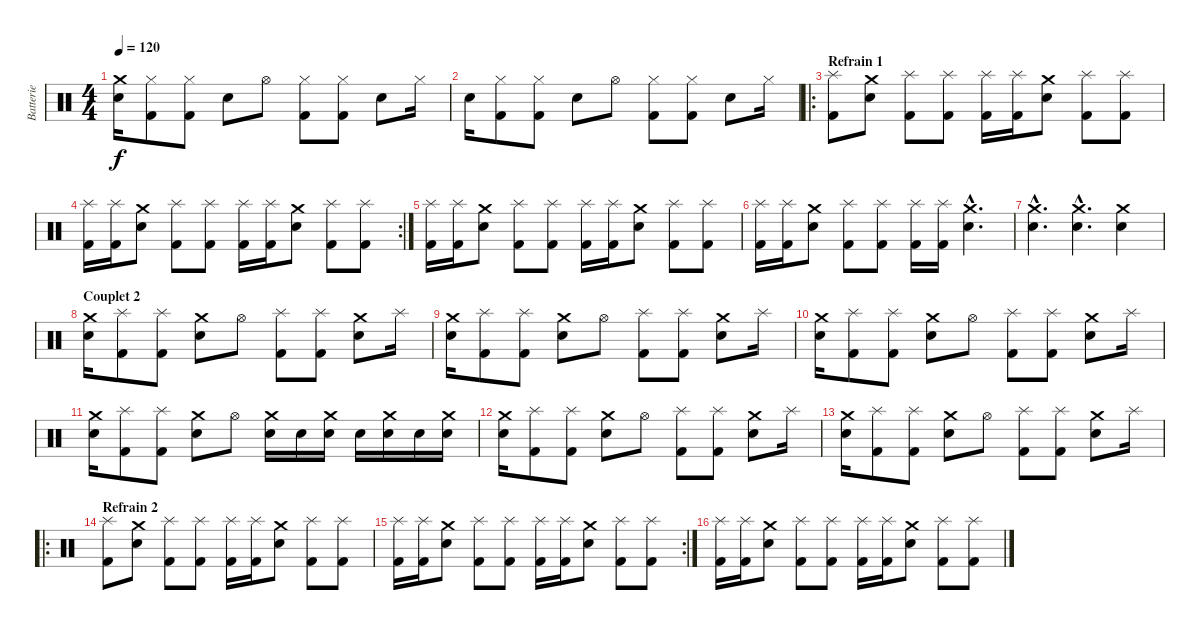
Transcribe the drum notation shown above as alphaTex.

\track ("Batterie" "Batterie") {instrument percussion}
\staff {score}
\articulation defaults
\ts (4 4)
\tempo 120
\clef neutral
\ks c
("Crash medium (hit)" "Snare (hit) 2").16{dy f} ("Hi-Hat (closed)" "Kick (hit) 2").8 ("Hi-Hat (closed)" "Kick (hit) 2").8 "Snare (hit) 2".8 "Hi-Hat (open)".8 ("Hi-Hat (closed)" "Kick (hit) 2").8 ("Hi-Hat (closed)" "Kick (hit) 2").8 "Snare (hit) 2".8 "Hi-Hat (closed)".16 |
"Snare (hit) 2".16 ("Hi-Hat (closed)" "Kick (hit) 2").8 ("Hi-Hat (closed)" "Kick (hit) 2").8 "Snare (hit) 2".8 "Hi-Hat (open)".8 ("Hi-Hat (closed)" "Kick (hit) 2").8 ("Hi-Hat (closed)" "Kick (hit) 2").8 "Snare (hit) 2".8 "Hi-Hat (closed)".16 |
\ro
\section ("" "Refrain 1")
("Splash (hit)" "Kick (hit) 2").8 ("Crash medium (hit)" "Snare (hit) 2").8 ("Splash (hit)" "Kick (hit) 2").8 ("Splash (hit)" "Kick (hit) 2").8 ("Splash (hit)" "Kick (hit) 2").16 ("Splash (hit)" "Kick (hit) 2").16 ("Crash medium (hit)" "Snare (hit) 2").8 ("Splash (hit)" "Kick (hit) 2").8 ("Splash (hit)" "Kick (hit) 2").8 |
\rc 2
("Splash (hit)" "Kick (hit) 2").16 ("Splash (hit)" "Kick (hit) 2").16 ("Crash medium (hit)" "Snare (hit) 2").8 ("Splash (hit)" "Kick (hit) 2").8 ("Splash (hit)" "Kick (hit) 2").8 ("Splash (hit)" "Kick (hit) 2").16 ("Splash (hit)" "Kick (hit) 2").16 ("Crash medium (hit)" "Snare (hit) 2").8 ("Splash (hit)" "Kick (hit) 2").8 ("Splash (hit)" "Kick (hit) 2").8 |
("Splash (hit)" "Kick (hit) 2").16 ("Splash (hit)" "Kick (hit) 2").16 ("Crash medium (hit)" "Snare (hit) 2").8 ("Splash (hit)" "Kick (hit) 2").8 ("Splash (hit)" "Kick (hit) 2").8 ("Splash (hit)" "Kick (hit) 2").16 ("Splash (hit)" "Kick (hit) 2").16 ("Crash medium (hit)" "Snare (hit) 2").8 ("Splash (hit)" "Kick (hit) 2").8 ("Splash (hit)" "Kick (hit) 2").8 |
("Splash (hit)" "Kick (hit) 2").16 ("Splash (hit)" "Kick (hit) 2").16 ("Crash medium (hit)" "Snare (hit) 2").8 ("Splash (hit)" "Kick (hit) 2").8 ("Splash (hit)" "Kick (hit) 2").8 ("Splash (hit)" "Kick (hit) 2").16 ("Splash (hit)" "Kick (hit) 2").16 ("Crash medium (hit)"{hac} "Snare (hit) 2"{hac}).4{d} |
("Crash medium (hit)"{hac} "Snare (hit) 2"{hac}).4{d} ("Crash medium (hit)"{hac} "Snare (hit) 2"{hac}).4{d} ("Crash medium (hit)" "Snare (hit) 2").4 |
\section ("" "Couplet 2")
("Crash medium (hit)" "Snare (hit) 2").16 ("Splash (hit)" "Kick (hit) 2").8 ("Splash (hit)" "Kick (hit) 2").8 ("Crash medium (hit)" "Snare (hit) 2").8 "Hi-Hat (open)".8 ("Splash (hit)" "Kick (hit) 2").8 ("Splash (hit)" "Kick (hit) 2").8 ("Crash medium (hit)" "Snare (hit) 2").8 "Splash (hit)".16 |
("Crash medium (hit)" "Snare (hit) 2").16 ("Splash (hit)" "Kick (hit) 2").8 ("Splash (hit)" "Kick (hit) 2").8 ("Crash medium (hit)" "Snare (hit) 2").8 "Hi-Hat (open)".8 ("Splash (hit)" "Kick (hit) 2").8 ("Splash (hit)" "Kick (hit) 2").8 ("Crash medium (hit)" "Snare (hit) 2").8 "Splash (hit)".16 |
("Crash medium (hit)" "Snare (hit) 2").16 ("Splash (hit)" "Kick (hit) 2").8 ("Splash (hit)" "Kick (hit) 2").8 ("Crash medium (hit)" "Snare (hit) 2").8 "Hi-Hat (open)".8 ("Splash (hit)" "Kick (hit) 2").8 ("Splash (hit)" "Kick (hit) 2").8 ("Crash medium (hit)" "Snare (hit) 2").8 "Splash (hit)".16 |
("Crash medium (hit)" "Snare (hit) 2").16 ("Splash (hit)" "Kick (hit) 2").8 ("Splash (hit)" "Kick (hit) 2").8 ("Crash medium (hit)" "Snare (hit) 2").8 "Hi-Hat (open)".8 ("Crash medium (hit)" "Snare (hit) 2").16 "Snare (hit) 2".16 ("Crash medium (hit)" "Snare (hit) 2").16 "Snare (hit) 2".16 ("Crash medium (hit)" "Snare (hit) 2").16 "Snare (hit) 2".16 ("Crash medium (hit)" "Snare (hit) 2").16 |
("Crash medium (hit)" "Snare (hit) 2").16 ("Splash (hit)" "Kick (hit) 2").8 ("Splash (hit)" "Kick (hit) 2").8 ("Crash medium (hit)" "Snare (hit) 2").8 "Hi-Hat (open)".8 ("Splash (hit)" "Kick (hit) 2").8 ("Splash (hit)" "Kick (hit) 2").8 ("Crash medium (hit)" "Snare (hit) 2").8 "Splash (hit)".16 |
("Crash medium (hit)" "Snare (hit) 2").16 ("Splash (hit)" "Kick (hit) 2").8 ("Splash (hit)" "Kick (hit) 2").8 ("Crash medium (hit)" "Snare (hit) 2").8 "Hi-Hat (open)".8 ("Splash (hit)" "Kick (hit) 2").8 ("Splash (hit)" "Kick (hit) 2").8 ("Crash medium (hit)" "Snare (hit) 2").8 "Splash (hit)".16 |
\ro
\section ("" "Refrain 2")
("Splash (hit)" "Kick (hit) 2").8 ("Crash medium (hit)" "Snare (hit) 2").8 ("Splash (hit)" "Kick (hit) 2").8 ("Splash (hit)" "Kick (hit) 2").8 ("Splash (hit)" "Kick (hit) 2").16 ("Splash (hit)" "Kick (hit) 2").16 ("Crash medium (hit)" "Snare (hit) 2").8 ("Splash (hit)" "Kick (hit) 2").8 ("Splash (hit)" "Kick (hit) 2").8 |
\rc 2
("Splash (hit)" "Kick (hit) 2").16 ("Splash (hit)" "Kick (hit) 2").16 ("Crash medium (hit)" "Snare (hit) 2").8 ("Splash (hit)" "Kick (hit) 2").8 ("Splash (hit)" "Kick (hit) 2").8 ("Splash (hit)" "Kick (hit) 2").16 ("Splash (hit)" "Kick (hit) 2").16 ("Crash medium (hit)" "Snare (hit) 2").8 ("Splash (hit)" "Kick (hit) 2").8 ("Splash (hit)" "Kick (hit) 2").8 |
("Splash (hit)" "Kick (hit) 2").16 ("Splash (hit)" "Kick (hit) 2").16 ("Crash medium (hit)" "Snare (hit) 2").8 ("Splash (hit)" "Kick (hit) 2").8 ("Splash (hit)" "Kick (hit) 2").8 ("Splash (hit)" "Kick (hit) 2").16 ("Splash (hit)" "Kick (hit) 2").16 ("Crash medium (hit)" "Snare (hit) 2").8 ("Splash (hit)" "Kick (hit) 2").8 ("Splash (hit)" "Kick (hit) 2").8
